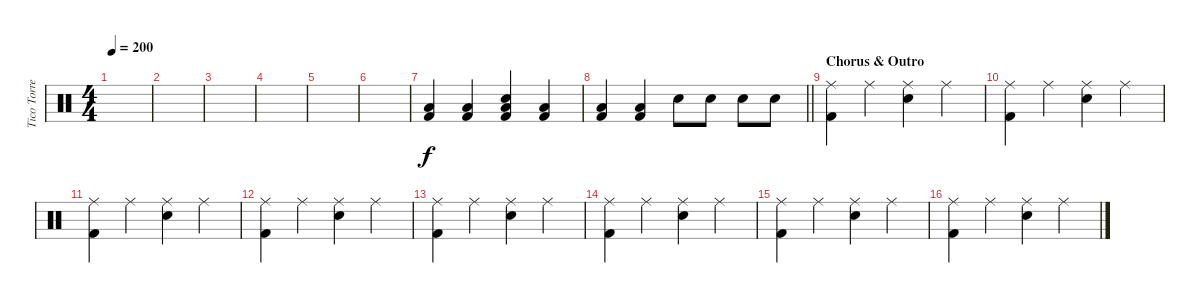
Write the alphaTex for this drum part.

\track ("Tico Torres" "Tico Torre") {instrument percussion}
\staff {score}
\articulation defaults
\ts (4 4)
\tempo 200
\clef neutral
\ks c
|
|
|
|
|
|
("Kick (hit) 2" "Low Tom (hit)").4 ("Kick (hit) 2" "Low Tom (hit)").4 ("Snare (hit) 2" "Kick (hit) 2" "Low Tom (hit)").4 ("Kick (hit) 2" "Low Tom (hit)").4 |
\barLineRight lightlight
("Kick (hit) 2" "Low Tom (hit)").4 ("Kick (hit) 2" "Low Tom (hit)").4 "Snare (hit) 2".8 "Snare (hit) 2".8 "Snare (hit) 2".8 "Snare (hit) 2".8 |
\section ("" "Chorus & Outro")
("Ride (middle)" "Kick (hit) 2").4 "Ride (middle)".4 ("Snare (hit) 2" "Ride (middle)").4 "Ride (middle)".4 |
("Ride (middle)" "Kick (hit) 2").4 "Ride (middle)".4 ("Snare (hit) 2" "Ride (middle)").4 "Ride (middle)".4 |
("Ride (middle)" "Kick (hit) 2").4 "Ride (middle)".4 ("Snare (hit) 2" "Ride (middle)").4 "Ride (middle)".4 |
("Ride (middle)" "Kick (hit) 2").4 "Ride (middle)".4 ("Snare (hit) 2" "Ride (middle)").4 "Ride (middle)".4 |
("Ride (middle)" "Kick (hit) 2").4 "Ride (middle)".4 ("Snare (hit) 2" "Ride (middle)").4 "Ride (middle)".4 |
("Ride (middle)" "Kick (hit) 2").4 "Ride (middle)".4 ("Snare (hit) 2" "Ride (middle)").4 "Ride (middle)".4 |
("Ride (middle)" "Kick (hit) 2").4 "Ride (middle)".4 ("Snare (hit) 2" "Ride (middle)").4 "Ride (middle)".4 |
("Ride (middle)" "Kick (hit) 2").4 "Ride (middle)".4 ("Snare (hit) 2" "Ride (middle)").4 "Ride (middle)".4
